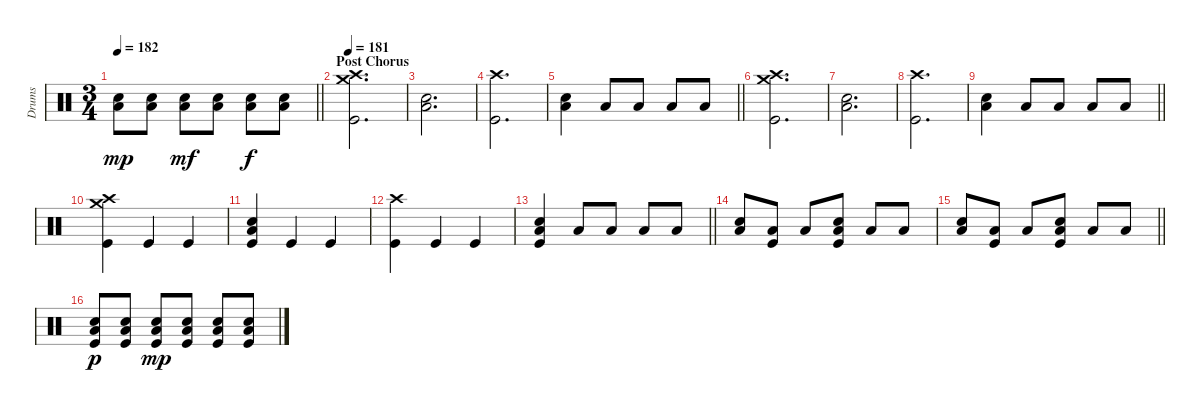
\track ("Drums" "Drums") {instrument percussion}
\staff {score}
\articulation defaults
\ts (3 4)
\tempo 182
\clef neutral
\barLineRight lightlight
\ks c
("Electric Snare (hit)" "Low Floor Tom (hit)").8{dy mp} ("Electric Snare (hit)" "Low Floor Tom (hit)").8 ("Electric Snare (hit)" "Low Floor Tom (hit)").8{dy mf} ("Electric Snare (hit)" "Low Floor Tom (hit)").8 ("Electric Snare (hit)" "Low Floor Tom (hit)").8{dy f} ("Electric Snare (hit)" "Low Floor Tom (hit)").8 |
\section ("" "Post Chorus")
\tempo 181
("Crash high (hit)" "Crash medium (hit)" "Kick (hit)").2{d} |
("Electric Snare (hit)" "Low Floor Tom (hit)").2{d} |
("Crash high (hit)" "Kick (hit)").2{d} |
\barLineRight lightlight
("Electric Snare (hit)" "Low Floor Tom (hit)").4 "Low Floor Tom (hit)".8 "Low Floor Tom (hit)".8 "Low Floor Tom (hit)".8 "Low Floor Tom (hit)".8 |
("Crash high (hit)" "Crash medium (hit)" "Kick (hit)").2{d} |
("Electric Snare (hit)" "Low Floor Tom (hit)").2{d} |
("Crash high (hit)" "Kick (hit)").2{d} |
\barLineRight lightlight
("Electric Snare (hit)" "Low Floor Tom (hit)").4 "Low Floor Tom (hit)".8 "Low Floor Tom (hit)".8 "Low Floor Tom (hit)".8 "Low Floor Tom (hit)".8 |
("Crash high (hit)" "Crash medium (hit)" "Kick (hit)").4 "Kick (hit)".4 "Kick (hit)".4 |
("Electric Snare (hit)" "Low Floor Tom (hit)" "Kick (hit)").4 "Kick (hit)".4 "Kick (hit)".4 |
("Crash high (hit)" "Kick (hit)").4 "Kick (hit)".4 "Kick (hit)".4 |
\barLineRight lightlight
("Electric Snare (hit)" "Low Floor Tom (hit)" "Kick (hit)").4 "Low Floor Tom (hit)".8 "Low Floor Tom (hit)".8 "Low Floor Tom (hit)".8 "Low Floor Tom (hit)".8 |
("Electric Snare (hit)" "Low Floor Tom (hit)").8 ("Low Floor Tom (hit)" "Kick (hit)").8 "Low Floor Tom (hit)".8 ("Electric Snare (hit)" "Low Floor Tom (hit)" "Kick (hit)").8 "Low Floor Tom (hit)".8 "Low Floor Tom (hit)".8 |
\barLineRight lightlight
("Electric Snare (hit)" "Low Floor Tom (hit)").8 ("Low Floor Tom (hit)" "Kick (hit)").8 "Low Floor Tom (hit)".8 ("Electric Snare (hit)" "Low Floor Tom (hit)" "Kick (hit)").8 "Low Floor Tom (hit)".8 "Low Floor Tom (hit)".8 |
("Electric Snare (hit)" "Low Floor Tom (hit)" "Kick (hit)").8{dy p} ("Electric Snare (hit)" "Low Floor Tom (hit)" "Kick (hit)").8 ("Electric Snare (hit)" "Low Floor Tom (hit)" "Kick (hit)").8{dy mp} ("Electric Snare (hit)" "Low Floor Tom (hit)" "Kick (hit)").8 ("Electric Snare (hit)" "Low Floor Tom (hit)" "Kick (hit)").8 ("Electric Snare (hit)" "Low Floor Tom (hit)" "Kick (hit)").8
